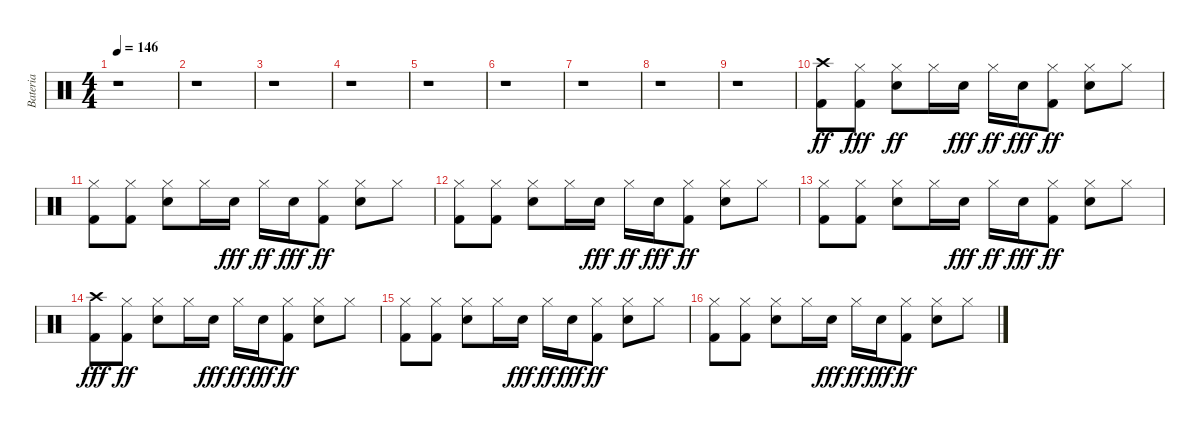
\track ("Bateria" "Bateria") {instrument percussion}
\staff {score}
\articulation defaults
\ts (4 4)
\tempo 146
\clef neutral
\ks c
r.1{dy ff} |
r.1 |
r.1 |
r.1 |
r.1 |
r.1 |
r.1 |
r.1 |
r.1 |
("Kick (hit) 2" "Crash high (hit)").8 ("Hi-Hat (closed)" "Kick (hit) 2").8{dy fff} ("Electric Snare (hit)" "Hi-Hat (closed)").8{dy ff} "Hi-Hat (closed)".16 "Electric Snare (hit)".16{dy fff} "Hi-Hat (closed)".16{dy ff} "Electric Snare (hit)".16{dy fff} ("Kick (hit) 2" "Hi-Hat (closed)").8{dy ff} ("Electric Snare (hit)" "Hi-Hat (closed)").8 "Hi-Hat (closed)".8 |
("Kick (hit) 2" "Hi-Hat (closed)").8 ("Kick (hit) 2" "Hi-Hat (closed)").8 ("Electric Snare (hit)" "Hi-Hat (closed)").8 "Hi-Hat (closed)".16 "Electric Snare (hit)".16{dy fff} "Hi-Hat (closed)".16{dy ff} "Electric Snare (hit)".16{dy fff} ("Kick (hit) 2" "Hi-Hat (closed)").8{dy ff} ("Electric Snare (hit)" "Hi-Hat (closed)").8 "Hi-Hat (closed)".8 |
("Kick (hit) 2" "Hi-Hat (closed)").8 ("Kick (hit) 2" "Hi-Hat (closed)").8 ("Electric Snare (hit)" "Hi-Hat (closed)").8 "Hi-Hat (closed)".16 "Electric Snare (hit)".16{dy fff} "Hi-Hat (closed)".16{dy ff} "Electric Snare (hit)".16{dy fff} ("Kick (hit) 2" "Hi-Hat (closed)").8{dy ff} ("Electric Snare (hit)" "Hi-Hat (closed)").8 "Hi-Hat (closed)".8 |
("Kick (hit) 2" "Hi-Hat (closed)").8 ("Kick (hit) 2" "Hi-Hat (closed)").8 ("Electric Snare (hit)" "Hi-Hat (closed)").8 "Hi-Hat (closed)".16 "Electric Snare (hit)".16{dy fff} "Hi-Hat (closed)".16{dy ff} "Electric Snare (hit)".16{dy fff} ("Kick (hit) 2" "Hi-Hat (closed)").8{dy ff} ("Electric Snare (hit)" "Hi-Hat (closed)").8 "Hi-Hat (closed)".8 |
("Crash high (hit)" "Kick (hit) 2").8{dy fff} ("Kick (hit) 2" "Hi-Hat (closed)").8{dy ff} ("Electric Snare (hit)" "Hi-Hat (closed)").8 "Hi-Hat (closed)".16 "Electric Snare (hit)".16{dy fff} "Hi-Hat (closed)".16{dy ff} "Electric Snare (hit)".16{dy fff} ("Kick (hit) 2" "Hi-Hat (closed)").8{dy ff} ("Electric Snare (hit)" "Hi-Hat (closed)").8 "Hi-Hat (closed)".8 |
("Kick (hit) 2" "Hi-Hat (closed)").8 ("Kick (hit) 2" "Hi-Hat (closed)").8 ("Electric Snare (hit)" "Hi-Hat (closed)").8 "Hi-Hat (closed)".16 "Electric Snare (hit)".16{dy fff} "Hi-Hat (closed)".16{dy ff} "Electric Snare (hit)".16{dy fff} ("Kick (hit) 2" "Hi-Hat (closed)").8{dy ff} ("Electric Snare (hit)" "Hi-Hat (closed)").8 "Hi-Hat (closed)".8 |
("Kick (hit) 2" "Hi-Hat (closed)").8 ("Kick (hit) 2" "Hi-Hat (closed)").8 ("Electric Snare (hit)" "Hi-Hat (closed)").8 "Hi-Hat (closed)".16 "Electric Snare (hit)".16{dy fff} "Hi-Hat (closed)".16{dy ff} "Electric Snare (hit)".16{dy fff} ("Kick (hit) 2" "Hi-Hat (closed)").8{dy ff} ("Electric Snare (hit)" "Hi-Hat (closed)").8 "Hi-Hat (closed)".8
